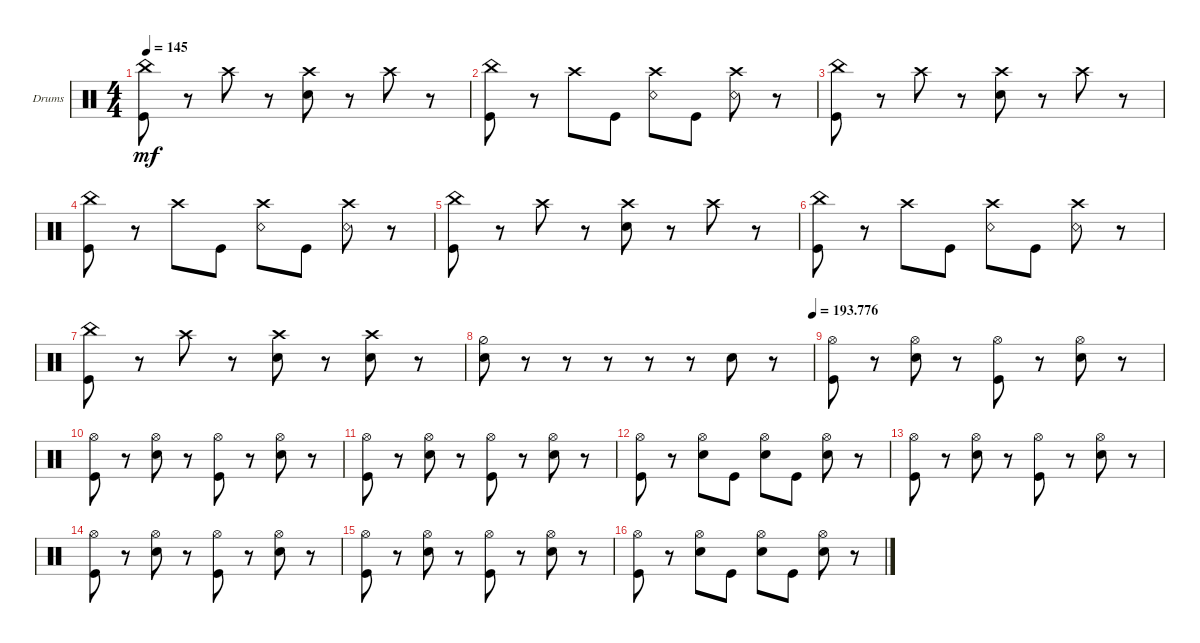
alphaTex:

\defaultSystemsLayout 4
\bracketExtendMode groupsimilarinstruments
\firstSystemTrackNameOrientation horizontal
\otherSystemsTrackNameOrientation horizontal
\track ("Drumkit" "Drums") {instrument percussion}
\staff {score}
\articulation defaults
\ts (4 4)
\tempo 145
\clef neutral
\ks c
("Kick (hit)" "China (hit)").8{dy mf} r.8 "Crash high (hit)".8 r.8 ("Snare (hit) 2" "Crash high (hit)").8 r.8 "Crash high (hit)".8 r.8 |
("Kick (hit)" "China (hit)").8 r.8 "Crash high (hit)".8 "Kick (hit)".8 ("Snare (rim shot)" "Crash high (hit)").8 "Kick (hit)".8 ("Crash high (hit)" "Snare (rim shot)").8 r.8 |
("Kick (hit)" "China (hit)").8 r.8 "Crash high (hit)".8 r.8 ("Snare (hit) 2" "Crash high (hit)").8 r.8 "Crash high (hit)".8 r.8 |
("Kick (hit)" "China (hit)").8 r.8 "Crash high (hit)".8 "Kick (hit)".8 ("Snare (rim shot)" "Crash high (hit)").8 "Kick (hit)".8 ("Crash high (hit)" "Snare (rim shot)").8 r.8 |
("Kick (hit)" "China (hit)").8 r.8 "Crash high (hit)".8 r.8 ("Snare (hit) 2" "Crash high (hit)").8 r.8 "Crash high (hit)".8 r.8 |
("Kick (hit)" "China (hit)").8 r.8 "Crash high (hit)".8 "Kick (hit)".8 ("Snare (rim shot)" "Crash high (hit)").8 "Kick (hit)".8 ("Crash high (hit)" "Snare (rim shot)").8 r.8 |
("Kick (hit)" "China (hit)").8 r.8 "Crash high (hit)".8 r.8 ("Snare (hit) 2" "Crash high (hit)").8 r.8 ("Crash high (hit)" "Snare (hit) 2").8 r.8 |
\tempo (193.776 1)
("Snare (hit) 2" "Hi-Hat (half)").8 r.8 r.8 r.8 r.8 r.8 "Snare (hit) 2".8 r.8 |
("Kick (hit)" "Hi-Hat (open)").8 r.8 ("Snare (hit) 2" "Hi-Hat (open)").8 r.8 ("Kick (hit)" "Hi-Hat (open)").8 r.8 ("Snare (hit) 2" "Hi-Hat (open)").8 r.8 |
("Kick (hit)" "Hi-Hat (open)").8 r.8 ("Snare (hit) 2" "Hi-Hat (open)").8 r.8 ("Kick (hit)" "Hi-Hat (open)").8 r.8 ("Snare (hit) 2" "Hi-Hat (open)").8 r.8 |
("Kick (hit)" "Hi-Hat (open)").8 r.8 ("Snare (hit) 2" "Hi-Hat (open)").8 r.8 ("Kick (hit)" "Hi-Hat (open)").8 r.8 ("Snare (hit) 2" "Hi-Hat (open)").8 r.8 |
("Kick (hit)" "Hi-Hat (open)").8 r.8 ("Snare (hit) 2" "Hi-Hat (open)").8 "Kick (hit)".8 ("Hi-Hat (open)" "Snare (hit) 2").8 "Kick (hit)".8 ("Snare (hit) 2" "Hi-Hat (open)").8 r.8 |
("Kick (hit)" "Hi-Hat (open)").8 r.8 ("Snare (hit) 2" "Hi-Hat (open)").8 r.8 ("Kick (hit)" "Hi-Hat (open)").8 r.8 ("Snare (hit) 2" "Hi-Hat (open)").8 r.8 |
("Kick (hit)" "Hi-Hat (open)").8 r.8 ("Snare (hit) 2" "Hi-Hat (open)").8 r.8 ("Kick (hit)" "Hi-Hat (open)").8 r.8 ("Snare (hit) 2" "Hi-Hat (open)").8 r.8 |
("Kick (hit)" "Hi-Hat (open)").8 r.8 ("Snare (hit) 2" "Hi-Hat (open)").8 r.8 ("Kick (hit)" "Hi-Hat (open)").8 r.8 ("Snare (hit) 2" "Hi-Hat (open)").8 r.8 |
("Kick (hit)" "Hi-Hat (open)").8 r.8 ("Snare (hit) 2" "Hi-Hat (open)").8 "Kick (hit)".8 ("Hi-Hat (open)" "Snare (hit) 2").8 "Kick (hit)".8 ("Snare (hit) 2" "Hi-Hat (open)").8 r.8
